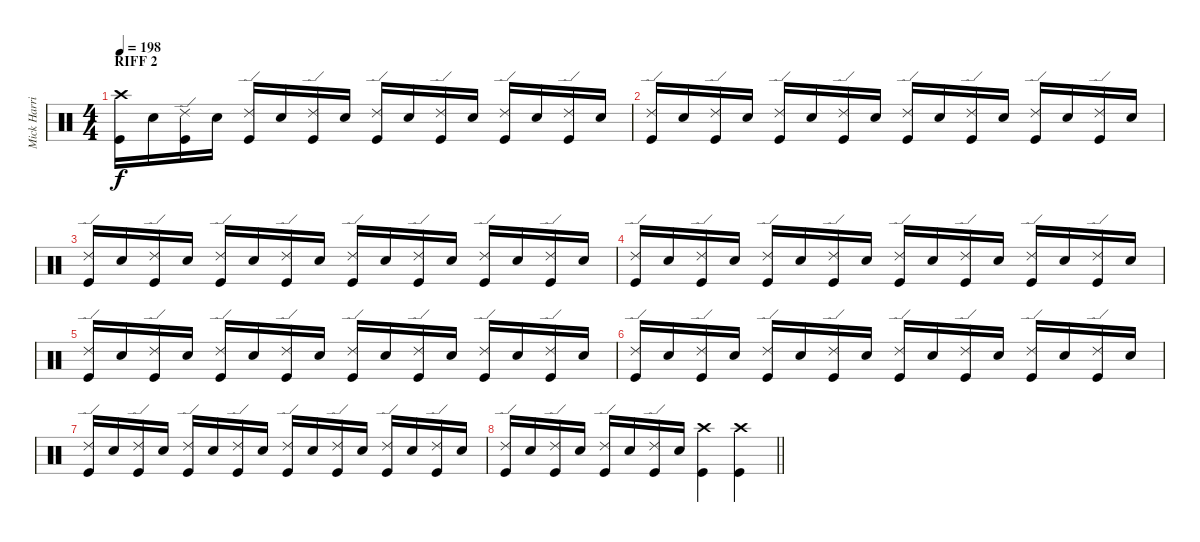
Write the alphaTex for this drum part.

\track ("Mick Harris" "Mick Harri") {instrument percussion}
\staff {score}
\articulation defaults
\ts (4 4)
\section ("" "RIFF 2")
\tempo 198
\clef neutral
\ks c
("Crash high (hit)" "Kick (hit)").16{dy f} "Snare (hit) 2".16 ("Ride (edge) 2" "Kick (hit)").16 "Snare (hit) 2".16 ("Ride (edge) 2" "Kick (hit)").16 "Snare (hit) 2".16 ("Ride (edge) 2" "Kick (hit)").16 "Snare (hit) 2".16 ("Ride (edge) 2" "Kick (hit)").16 "Snare (hit) 2".16 ("Ride (edge) 2" "Kick (hit)").16 "Snare (hit) 2".16 ("Ride (edge) 2" "Kick (hit)").16 "Snare (hit) 2".16 ("Ride (edge) 2" "Kick (hit)").16 "Snare (hit) 2".16 |
("Ride (edge) 2" "Kick (hit)").16 "Snare (hit) 2".16 ("Ride (edge) 2" "Kick (hit)").16 "Snare (hit) 2".16 ("Ride (edge) 2" "Kick (hit)").16 "Snare (hit) 2".16 ("Ride (edge) 2" "Kick (hit)").16 "Snare (hit) 2".16 ("Ride (edge) 2" "Kick (hit)").16 "Snare (hit) 2".16 ("Ride (edge) 2" "Kick (hit)").16 "Snare (hit) 2".16 ("Ride (edge) 2" "Kick (hit)").16 "Snare (hit) 2".16 ("Ride (edge) 2" "Kick (hit)").16 "Snare (hit) 2".16 |
("Ride (edge) 2" "Kick (hit)").16 "Snare (hit) 2".16 ("Ride (edge) 2" "Kick (hit)").16 "Snare (hit) 2".16 ("Ride (edge) 2" "Kick (hit)").16 "Snare (hit) 2".16 ("Ride (edge) 2" "Kick (hit)").16 "Snare (hit) 2".16 ("Ride (edge) 2" "Kick (hit)").16 "Snare (hit) 2".16 ("Ride (edge) 2" "Kick (hit)").16 "Snare (hit) 2".16 ("Ride (edge) 2" "Kick (hit)").16 "Snare (hit) 2".16 ("Ride (edge) 2" "Kick (hit)").16 "Snare (hit) 2".16 |
("Ride (edge) 2" "Kick (hit)").16 "Snare (hit) 2".16 ("Ride (edge) 2" "Kick (hit)").16 "Snare (hit) 2".16 ("Ride (edge) 2" "Kick (hit)").16 "Snare (hit) 2".16 ("Ride (edge) 2" "Kick (hit)").16 "Snare (hit) 2".16 ("Ride (edge) 2" "Kick (hit)").16 "Snare (hit) 2".16 ("Ride (edge) 2" "Kick (hit)").16 "Snare (hit) 2".16 ("Ride (edge) 2" "Kick (hit)").16 "Snare (hit) 2".16 ("Ride (edge) 2" "Kick (hit)").16 "Snare (hit) 2".16 |
("Ride (edge) 2" "Kick (hit)").16 "Snare (hit) 2".16 ("Ride (edge) 2" "Kick (hit)").16 "Snare (hit) 2".16 ("Ride (edge) 2" "Kick (hit)").16 "Snare (hit) 2".16 ("Ride (edge) 2" "Kick (hit)").16 "Snare (hit) 2".16 ("Ride (edge) 2" "Kick (hit)").16 "Snare (hit) 2".16 ("Ride (edge) 2" "Kick (hit)").16 "Snare (hit) 2".16 ("Ride (edge) 2" "Kick (hit)").16 "Snare (hit) 2".16 ("Ride (edge) 2" "Kick (hit)").16 "Snare (hit) 2".16 |
("Ride (edge) 2" "Kick (hit)").16 "Snare (hit) 2".16 ("Ride (edge) 2" "Kick (hit)").16 "Snare (hit) 2".16 ("Ride (edge) 2" "Kick (hit)").16 "Snare (hit) 2".16 ("Ride (edge) 2" "Kick (hit)").16 "Snare (hit) 2".16 ("Ride (edge) 2" "Kick (hit)").16 "Snare (hit) 2".16 ("Ride (edge) 2" "Kick (hit)").16 "Snare (hit) 2".16 ("Ride (edge) 2" "Kick (hit)").16 "Snare (hit) 2".16 ("Ride (edge) 2" "Kick (hit)").16 "Snare (hit) 2".16 |
("Ride (edge) 2" "Kick (hit)").16 "Snare (hit) 2".16 ("Ride (edge) 2" "Kick (hit)").16 "Snare (hit) 2".16 ("Ride (edge) 2" "Kick (hit)").16 "Snare (hit) 2".16 ("Ride (edge) 2" "Kick (hit)").16 "Snare (hit) 2".16 ("Ride (edge) 2" "Kick (hit)").16 "Snare (hit) 2".16 ("Ride (edge) 2" "Kick (hit)").16 "Snare (hit) 2".16 ("Ride (edge) 2" "Kick (hit)").16 "Snare (hit) 2".16 ("Ride (edge) 2" "Kick (hit)").16 "Snare (hit) 2".16 |
\barLineRight lightlight
("Ride (edge) 2" "Kick (hit)").16 "Snare (hit) 2".16 ("Ride (edge) 2" "Kick (hit)").16 "Snare (hit) 2".16 ("Ride (edge) 2" "Kick (hit)").16 "Snare (hit) 2".16 ("Ride (edge) 2" "Kick (hit)").16 "Snare (hit) 2".16 ("Crash high (hit)" "Kick (hit)").4 ("Crash high (hit)" "Kick (hit)").4
